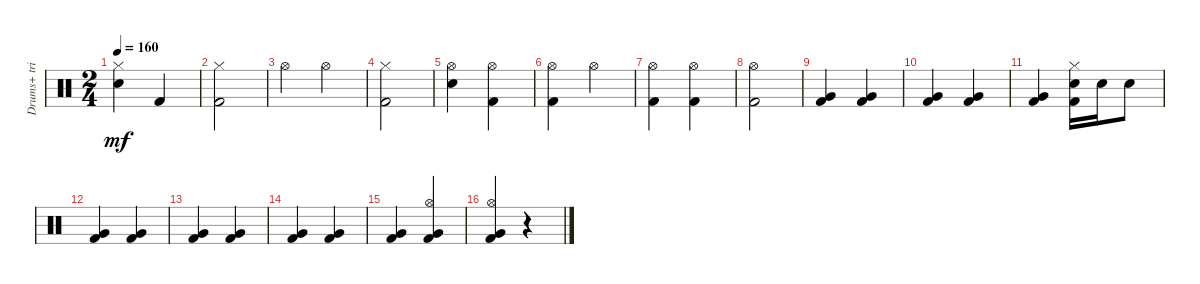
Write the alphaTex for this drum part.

\track ("Drums+ triangle" "Drums+ tri") {instrument percussion}
\staff {score}
\articulation defaults
\ts (2 4)
\tempo 160
\clef neutral
\ks c
("Hi-Hat (closed)" "Snare (hit) 2").4{dy mf} "Kick (hit) 2".4 |
("Hi-Hat (closed)" "Kick (hit) 2").2 |
"Hi-Hat (open)".4 "Hi-Hat (open)".4 |
("Hi-Hat (closed)" "Kick (hit) 2").2 |
("Hi-Hat (open)" "Snare (hit) 2").4 ("Hi-Hat (open)" "Kick (hit) 2").4 |
("Kick (hit) 2" "Hi-Hat (open)").4 "Hi-Hat (open)".4 |
("Hi-Hat (open)" "Kick (hit) 2").4 ("Hi-Hat (open)" "Kick (hit) 2").4 |
("Hi-Hat (open)" "Kick (hit) 2").2 |
("Kick (hit) 2" "Very Low Tom (hit)").4 ("Kick (hit) 2" "Very Low Tom (hit)").4 |
("Kick (hit) 2" "Very Low Tom (hit)").4 ("Kick (hit) 2" "Very Low Tom (hit)").4 |
("Kick (hit) 2" "Very Low Tom (hit)").4 ("Kick (hit) 2" "Snare (hit) 2" "Hi-Hat (closed)").16 "Snare (hit) 2".16 "Snare (hit) 2".8 |
("Kick (hit) 2" "Very Low Tom (hit)").4 ("Kick (hit) 2" "Very Low Tom (hit)").4 |
("Kick (hit) 2" "Very Low Tom (hit)").4 ("Kick (hit) 2" "Very Low Tom (hit)").4 |
("Kick (hit) 2" "Very Low Tom (hit)").4 ("Kick (hit) 2" "Very Low Tom (hit)").4 |
("Kick (hit) 2" "Very Low Tom (hit)").4 ("Kick (hit) 2" "Very Low Tom (hit)" "Hi-Hat (open)").4 |
("Kick (hit) 2" "Very Low Tom (hit)" "Hi-Hat (open)").4 r.4
